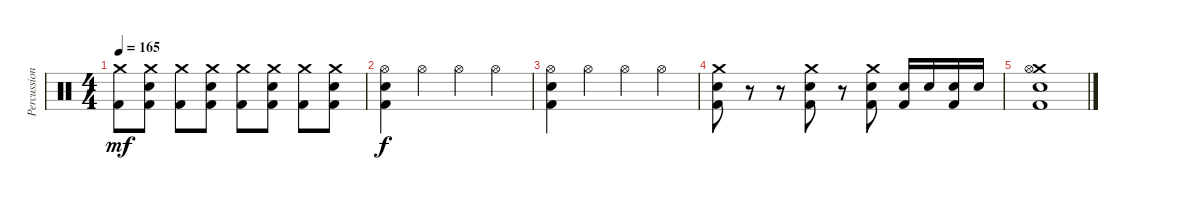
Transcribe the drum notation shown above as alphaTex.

\track ("Percussion" "Percussion") {instrument percussion}
\staff {score}
\articulation defaults
\ts (4 4)
\tempo 165
\clef neutral
\ks c
("Crash medium (hit)" "Kick (hit) 2").8{dy mf} ("Crash medium (hit)" "Snare (hit) 2" "Kick (hit) 2").8 ("Crash medium (hit)" "Kick (hit) 2").8 ("Crash medium (hit)" "Snare (hit) 2" "Kick (hit) 2").8 ("Crash medium (hit)" "Kick (hit) 2").8 ("Crash medium (hit)" "Snare (hit) 2" "Kick (hit) 2").8 ("Crash medium (hit)" "Kick (hit) 2").8 ("Crash medium (hit)" "Snare (hit) 2" "Kick (hit) 2").8 |
("Hi-Hat (open)" "Snare (hit) 2" "Kick (hit) 2").4{dy f} "Hi-Hat (open)".4 "Hi-Hat (open)".4 "Hi-Hat (open)".4 |
("Hi-Hat (open)" "Snare (hit) 2" "Kick (hit) 2").4 "Hi-Hat (open)".4 "Hi-Hat (open)".4 "Hi-Hat (open)".4 |
("Crash medium (hit)" "Snare (hit) 2" "Kick (hit) 2").8 r.8 r.8 ("Crash medium (hit)" "Snare (hit) 2" "Kick (hit) 2").8 r.8 ("Crash medium (hit)" "Snare (hit) 2" "Kick (hit) 2").8 ("Snare (hit) 2" "Kick (hit) 2").16 "Snare (hit) 2".16 ("Snare (hit) 2" "Kick (hit) 2").16 "Snare (hit) 2".16 |
("Crash medium (hit)" "Hi-Hat (open)" "Snare (hit) 2" "Kick (hit) 2").1
